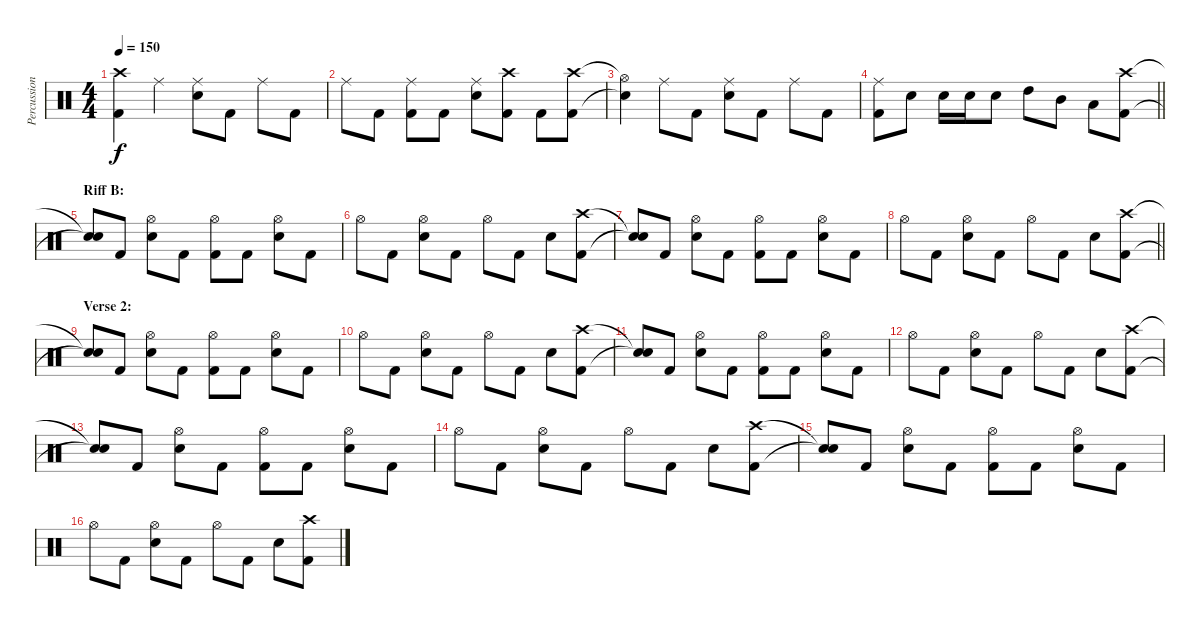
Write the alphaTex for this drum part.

\track ("Percussion" "Percussion") {instrument percussion}
\staff {score}
\articulation defaults
\ts (4 4)
\tempo 150
\clef neutral
\ks c
("Crash high (hit)" "Kick (hit) 2").4{dy f} "Ride (middle)".4 ("Ride (middle)" "Snare (hit) 2").8 "Kick (hit) 2".8 "Ride (middle)".8 "Kick (hit) 2".8 |
"Ride (middle)".8 "Kick (hit) 2".8 ("Ride (middle)" "Kick (hit) 2").8 "Kick (hit) 2".8 ("Ride (middle)" "Snare (hit) 2").8 ("Crash high (hit)" "Kick (hit) 2").8 "Kick (hit) 2".8 ("Crash high (hit)" "Kick (hit) 2").8 |
("Hi-Hat (open)"{t} "Snare (hit)"{t}).4 "Ride (middle)".8 "Kick (hit) 2".8 ("Ride (middle)" "Snare (hit) 2").8 "Kick (hit) 2".8 "Ride (middle)".8 "Kick (hit) 2".8 |
\barLineRight lightlight
("Ride (middle)" "Kick (hit) 2").8 "Snare (hit) 2".8 "Snare (hit) 2".16 "Snare (hit) 2".16 "Snare (hit) 2".8 "High Tom (hit)".8 "Mid Tom (hit)".8 "Low Tom (hit)".8 ("Crash high (hit)" "Kick (hit) 2").8 |
\section ("" "Riff B:")
("Snare (hit)"{t} "Snare (hit)"{t}).8 "Kick (hit) 2".8 ("Hi-Hat (open)" "Snare (hit) 2").8 "Kick (hit) 2".8 ("Hi-Hat (open)" "Kick (hit) 2").8 "Kick (hit) 2".8 ("Hi-Hat (open)" "Snare (hit) 2").8 "Kick (hit) 2".8 |
"Hi-Hat (open)".8 "Kick (hit) 2".8 ("Hi-Hat (open)" "Snare (hit) 2").8 "Kick (hit) 2".8 "Hi-Hat (open)".8 "Kick (hit) 2".8 "Snare (hit) 2".8 ("Crash high (hit)" "Kick (hit) 2").8 |
("Snare (hit)"{t} "Snare (hit)"{t}).8 "Kick (hit) 2".8 ("Hi-Hat (open)" "Snare (hit) 2").8 "Kick (hit) 2".8 ("Hi-Hat (open)" "Kick (hit) 2").8 "Kick (hit) 2".8 ("Hi-Hat (open)" "Snare (hit) 2").8 "Kick (hit) 2".8 |
\barLineRight lightlight "Hi-Hat (open)".8 "Kick (hit) 2".8
("Hi-Hat (open)" "Snare (hit) 2").8 "Kick (hit) 2".8 "Hi-Hat (open)".8 "Kick (hit) 2".8 "Snare (hit) 2".8 ("Crash high (hit)" "Kick (hit) 2").8 |
\section ("" "Verse 2:")
("Snare (hit)"{t} "Snare (hit)"{t}).8 "Kick (hit) 2".8 ("Hi-Hat (open)" "Snare (hit) 2").8 "Kick (hit) 2".8 ("Hi-Hat (open)" "Kick (hit) 2").8 "Kick (hit) 2".8 ("Hi-Hat (open)" "Snare (hit) 2").8 "Kick (hit) 2".8 |
"Hi-Hat (open)".8 "Kick (hit) 2".8 ("Hi-Hat (open)" "Snare (hit) 2").8 "Kick (hit) 2".8 "Hi-Hat (open)".8 "Kick (hit) 2".8 "Snare (hit) 2".8 ("Crash high (hit)" "Kick (hit) 2").8 |
("Snare (hit)"{t} "Snare (hit)"{t}).8 "Kick (hit) 2".8 ("Hi-Hat (open)" "Snare (hit) 2").8 "Kick (hit) 2".8 ("Hi-Hat (open)" "Kick (hit) 2").8 "Kick (hit) 2".8 ("Hi-Hat (open)" "Snare (hit) 2").8 "Kick (hit) 2".8 |
"Hi-Hat (open)".8 "Kick (hit) 2".8 ("Hi-Hat (open)" "Snare (hit) 2").8 "Kick (hit) 2".8 "Hi-Hat (open)".8 "Kick (hit) 2".8 "Snare (hit) 2".8 ("Crash high (hit)" "Kick (hit) 2").8 |
("Snare (hit)"{t} "Snare (hit)"{t}).8 "Kick (hit) 2".8 ("Hi-Hat (open)" "Snare (hit) 2").8 "Kick (hit) 2".8 ("Hi-Hat (open)" "Kick (hit) 2").8 "Kick (hit) 2".8 ("Hi-Hat (open)" "Snare (hit) 2").8 "Kick (hit) 2".8 |
"Hi-Hat (open)".8 "Kick (hit) 2".8 ("Hi-Hat (open)" "Snare (hit) 2").8 "Kick (hit) 2".8 "Hi-Hat (open)".8 "Kick (hit) 2".8 "Snare (hit) 2".8 ("Crash high (hit)" "Kick (hit) 2").8 |
("Snare (hit)"{t} "Snare (hit)"{t}).8 "Kick (hit) 2".8 ("Hi-Hat (open)" "Snare (hit) 2").8 "Kick (hit) 2".8 ("Hi-Hat (open)" "Kick (hit) 2").8 "Kick (hit) 2".8 ("Hi-Hat (open)" "Snare (hit) 2").8 "Kick (hit) 2".8 |
"Hi-Hat (open)".8 "Kick (hit) 2".8 ("Hi-Hat (open)" "Snare (hit) 2").8 "Kick (hit) 2".8 "Hi-Hat (open)".8 "Kick (hit) 2".8 "Snare (hit) 2".8 ("Crash high (hit)" "Kick (hit) 2").8
